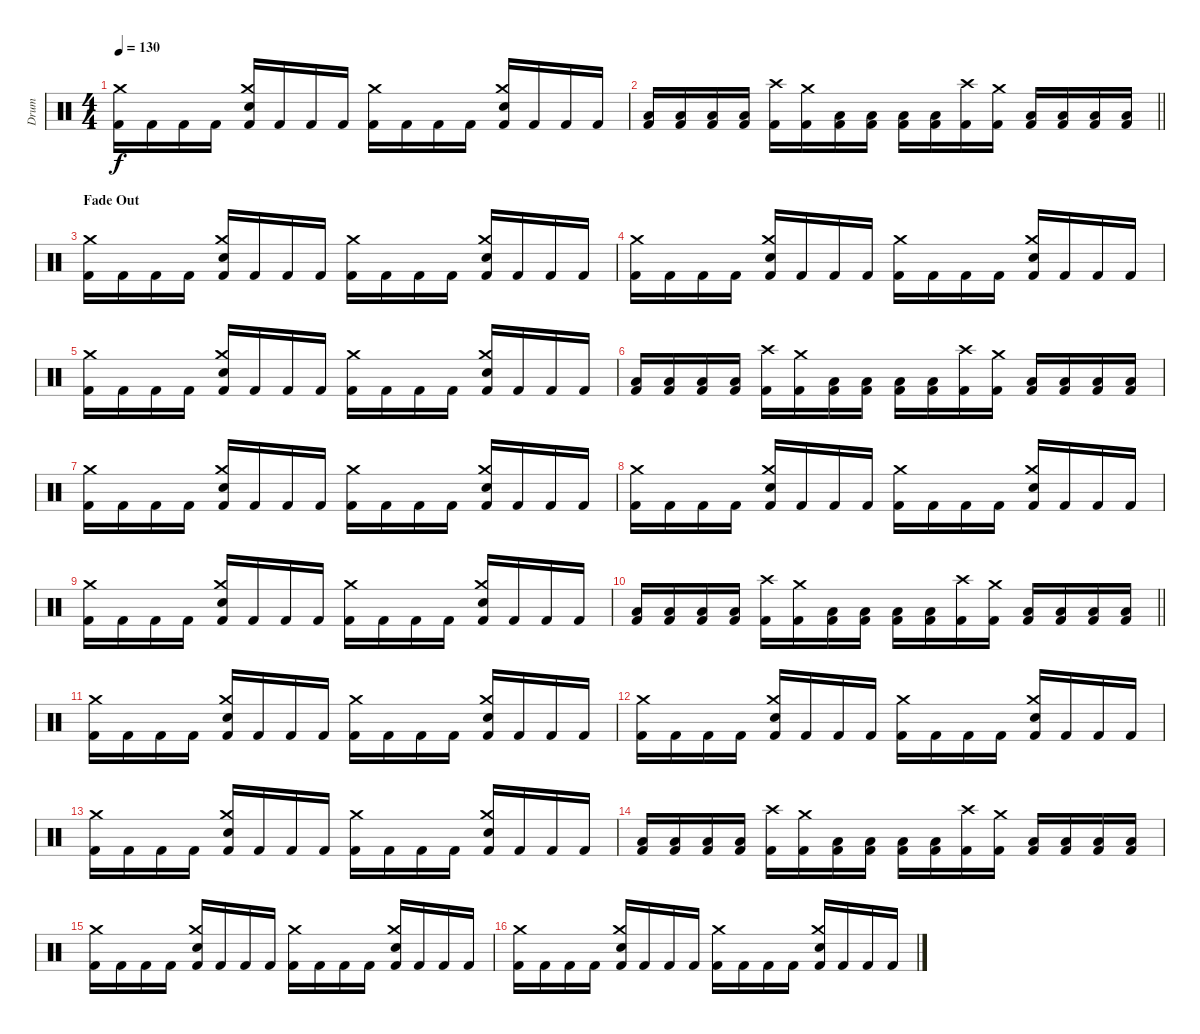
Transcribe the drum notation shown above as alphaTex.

\track ("Drum" "Drum") {instrument percussion}
\staff {score}
\articulation defaults
\ts (4 4)
\tempo 130
\clef neutral
\ks c
("Kick (hit) 2" "Crash medium (hit)").16{dy f} "Kick (hit) 2".16 "Kick (hit) 2".16 "Kick (hit) 2".16 ("Kick (hit) 2" "Electric Snare (hit)" "Crash medium (hit)").16 "Kick (hit) 2".16 "Kick (hit) 2".16 "Kick (hit) 2".16 ("Kick (hit) 2" "Crash medium (hit)").16 "Kick (hit) 2".16 "Kick (hit) 2".16 "Kick (hit) 2".16 ("Kick (hit) 2" "Electric Snare (hit)" "Crash medium (hit)").16 "Kick (hit) 2".16 "Kick (hit) 2".16 "Kick (hit) 2".16 |
\barLineRight lightlight
("Kick (hit) 2" "Low Floor Tom (hit)").16 ("Kick (hit) 2" "Low Floor Tom (hit)").16 ("Kick (hit) 2" "Low Floor Tom (hit)").16 ("Kick (hit) 2" "Low Floor Tom (hit)").16 ("Kick (hit) 2" "Crash high (hit)").16 ("Kick (hit) 2" "Crash medium (hit)").16 ("Kick (hit) 2" "Low Floor Tom (hit)").16 ("Kick (hit) 2" "Low Floor Tom (hit)").16 ("Kick (hit) 2" "Low Floor Tom (hit)").16 ("Kick (hit) 2" "Low Floor Tom (hit)").16 ("Kick (hit) 2" "Crash high (hit)").16 ("Kick (hit) 2" "Crash medium (hit)").16 ("Kick (hit) 2" "Low Floor Tom (hit)").16 ("Kick (hit) 2" "Low Floor Tom (hit)").16 ("Kick (hit) 2" "Low Floor Tom (hit)").16 ("Kick (hit) 2" "Low Floor Tom (hit)").16 |
\section ("" "Fade Out")
("Kick (hit) 2" "Crash medium (hit)").16 "Kick (hit) 2".16 "Kick (hit) 2".16 "Kick (hit) 2".16 ("Kick (hit) 2" "Electric Snare (hit)" "Crash medium (hit)").16 "Kick (hit) 2".16 "Kick (hit) 2".16 "Kick (hit) 2".16 ("Kick (hit) 2" "Crash medium (hit)").16 "Kick (hit) 2".16 "Kick (hit) 2".16 "Kick (hit) 2".16 ("Kick (hit) 2" "Electric Snare (hit)" "Crash medium (hit)").16 "Kick (hit) 2".16 "Kick (hit) 2".16 "Kick (hit) 2".16 |
("Kick (hit) 2" "Crash medium (hit)").16 "Kick (hit) 2".16 "Kick (hit) 2".16 "Kick (hit) 2".16 ("Kick (hit) 2" "Electric Snare (hit)" "Crash medium (hit)").16 "Kick (hit) 2".16 "Kick (hit) 2".16 "Kick (hit) 2".16 ("Kick (hit) 2" "Crash medium (hit)").16 "Kick (hit) 2".16 "Kick (hit) 2".16 "Kick (hit) 2".16 ("Kick (hit) 2" "Electric Snare (hit)" "Crash medium (hit)").16 "Kick (hit) 2".16 "Kick (hit) 2".16 "Kick (hit) 2".16 |
("Kick (hit) 2" "Crash medium (hit)").16 "Kick (hit) 2".16 "Kick (hit) 2".16 "Kick (hit) 2".16 ("Kick (hit) 2" "Electric Snare (hit)" "Crash medium (hit)").16 "Kick (hit) 2".16 "Kick (hit) 2".16 "Kick (hit) 2".16 ("Kick (hit) 2" "Crash medium (hit)").16 "Kick (hit) 2".16 "Kick (hit) 2".16 "Kick (hit) 2".16 ("Kick (hit) 2" "Electric Snare (hit)" "Crash medium (hit)").16 "Kick (hit) 2".16 "Kick (hit) 2".16 "Kick (hit) 2".16 |
("Kick (hit) 2" "Low Floor Tom (hit)").16 ("Kick (hit) 2" "Low Floor Tom (hit)").16 ("Kick (hit) 2" "Low Floor Tom (hit)").16 ("Kick (hit) 2" "Low Floor Tom (hit)").16 ("Kick (hit) 2" "Crash high (hit)").16 ("Kick (hit) 2" "Crash medium (hit)").16 ("Kick (hit) 2" "Low Floor Tom (hit)").16 ("Kick (hit) 2" "Low Floor Tom (hit)").16 ("Kick (hit) 2" "Low Floor Tom (hit)").16 ("Kick (hit) 2" "Low Floor Tom (hit)").16 ("Kick (hit) 2" "Crash high (hit)").16 ("Kick (hit) 2" "Crash medium (hit)").16 ("Kick (hit) 2" "Low Floor Tom (hit)").16 ("Kick (hit) 2" "Low Floor Tom (hit)").16 ("Kick (hit) 2" "Low Floor Tom (hit)").16 ("Kick (hit) 2" "Low Floor Tom (hit)").16 |
("Kick (hit) 2" "Crash medium (hit)").16 "Kick (hit) 2".16 "Kick (hit) 2".16 "Kick (hit) 2".16 ("Kick (hit) 2" "Electric Snare (hit)" "Crash medium (hit)").16 "Kick (hit) 2".16 "Kick (hit) 2".16 "Kick (hit) 2".16 ("Kick (hit) 2" "Crash medium (hit)").16 "Kick (hit) 2".16 "Kick (hit) 2".16 "Kick (hit) 2".16 ("Kick (hit) 2" "Electric Snare (hit)" "Crash medium (hit)").16 "Kick (hit) 2".16 "Kick (hit) 2".16 "Kick (hit) 2".16 |
("Kick (hit) 2" "Crash medium (hit)").16 "Kick (hit) 2".16 "Kick (hit) 2".16 "Kick (hit) 2".16 ("Kick (hit) 2" "Electric Snare (hit)" "Crash medium (hit)").16 "Kick (hit) 2".16 "Kick (hit) 2".16 "Kick (hit) 2".16 ("Kick (hit) 2" "Crash medium (hit)").16 "Kick (hit) 2".16 "Kick (hit) 2".16 "Kick (hit) 2".16 ("Kick (hit) 2" "Electric Snare (hit)" "Crash medium (hit)").16 "Kick (hit) 2".16 "Kick (hit) 2".16 "Kick (hit) 2".16 |
("Kick (hit) 2" "Crash medium (hit)").16 "Kick (hit) 2".16 "Kick (hit) 2".16 "Kick (hit) 2".16 ("Kick (hit) 2" "Electric Snare (hit)" "Crash medium (hit)").16 "Kick (hit) 2".16 "Kick (hit) 2".16 "Kick (hit) 2".16 ("Kick (hit) 2" "Crash medium (hit)").16 "Kick (hit) 2".16 "Kick (hit) 2".16 "Kick (hit) 2".16 ("Kick (hit) 2" "Electric Snare (hit)" "Crash medium (hit)").16 "Kick (hit) 2".16 "Kick (hit) 2".16 "Kick (hit) 2".16 |
\barLineRight lightlight
("Kick (hit) 2" "Low Floor Tom (hit)").16 ("Kick (hit) 2" "Low Floor Tom (hit)").16 ("Kick (hit) 2" "Low Floor Tom (hit)").16 ("Kick (hit) 2" "Low Floor Tom (hit)").16 ("Kick (hit) 2" "Crash high (hit)").16 ("Kick (hit) 2" "Crash medium (hit)").16 ("Kick (hit) 2" "Low Floor Tom (hit)").16 ("Kick (hit) 2" "Low Floor Tom (hit)").16 ("Kick (hit) 2" "Low Floor Tom (hit)").16 ("Kick (hit) 2" "Low Floor Tom (hit)").16 ("Kick (hit) 2" "Crash high (hit)").16 ("Kick (hit) 2" "Crash medium (hit)").16 ("Kick (hit) 2" "Low Floor Tom (hit)").16 ("Kick (hit) 2" "Low Floor Tom (hit)").16 ("Kick (hit) 2" "Low Floor Tom (hit)").16 ("Kick (hit) 2" "Low Floor Tom (hit)").16 |
("Kick (hit) 2" "Crash medium (hit)").16 "Kick (hit) 2".16 "Kick (hit) 2".16 "Kick (hit) 2".16 ("Kick (hit) 2" "Electric Snare (hit)" "Crash medium (hit)").16 "Kick (hit) 2".16 "Kick (hit) 2".16 "Kick (hit) 2".16 ("Kick (hit) 2" "Crash medium (hit)").16 "Kick (hit) 2".16 "Kick (hit) 2".16 "Kick (hit) 2".16 ("Kick (hit) 2" "Electric Snare (hit)" "Crash medium (hit)").16 "Kick (hit) 2".16 "Kick (hit) 2".16 "Kick (hit) 2".16 |
("Kick (hit) 2" "Crash medium (hit)").16 "Kick (hit) 2".16 "Kick (hit) 2".16 "Kick (hit) 2".16 ("Kick (hit) 2" "Electric Snare (hit)" "Crash medium (hit)").16 "Kick (hit) 2".16 "Kick (hit) 2".16 "Kick (hit) 2".16 ("Kick (hit) 2" "Crash medium (hit)").16 "Kick (hit) 2".16 "Kick (hit) 2".16 "Kick (hit) 2".16 ("Kick (hit) 2" "Electric Snare (hit)" "Crash medium (hit)").16 "Kick (hit) 2".16 "Kick (hit) 2".16 "Kick (hit) 2".16 |
("Kick (hit) 2" "Crash medium (hit)").16 "Kick (hit) 2".16 "Kick (hit) 2".16 "Kick (hit) 2".16 ("Kick (hit) 2" "Electric Snare (hit)" "Crash medium (hit)").16 "Kick (hit) 2".16 "Kick (hit) 2".16 "Kick (hit) 2".16 ("Kick (hit) 2" "Crash medium (hit)").16 "Kick (hit) 2".16 "Kick (hit) 2".16 "Kick (hit) 2".16 ("Kick (hit) 2" "Electric Snare (hit)" "Crash medium (hit)").16 "Kick (hit) 2".16 "Kick (hit) 2".16 "Kick (hit) 2".16 |
("Kick (hit) 2" "Low Floor Tom (hit)").16 ("Kick (hit) 2" "Low Floor Tom (hit)").16 ("Kick (hit) 2" "Low Floor Tom (hit)").16 ("Kick (hit) 2" "Low Floor Tom (hit)").16 ("Kick (hit) 2" "Crash high (hit)").16 ("Kick (hit) 2" "Crash medium (hit)").16 ("Kick (hit) 2" "Low Floor Tom (hit)").16 ("Kick (hit) 2" "Low Floor Tom (hit)").16 ("Kick (hit) 2" "Low Floor Tom (hit)").16 ("Kick (hit) 2" "Low Floor Tom (hit)").16 ("Kick (hit) 2" "Crash high (hit)").16 ("Kick (hit) 2" "Crash medium (hit)").16 ("Kick (hit) 2" "Low Floor Tom (hit)").16 ("Kick (hit) 2" "Low Floor Tom (hit)").16 ("Kick (hit) 2" "Low Floor Tom (hit)").16 ("Kick (hit) 2" "Low Floor Tom (hit)").16 |
("Kick (hit) 2" "Crash medium (hit)").16 "Kick (hit) 2".16 "Kick (hit) 2".16 "Kick (hit) 2".16 ("Kick (hit) 2" "Electric Snare (hit)" "Crash medium (hit)").16 "Kick (hit) 2".16 "Kick (hit) 2".16 "Kick (hit) 2".16 ("Kick (hit) 2" "Crash medium (hit)").16 "Kick (hit) 2".16 "Kick (hit) 2".16 "Kick (hit) 2".16 ("Kick (hit) 2" "Electric Snare (hit)" "Crash medium (hit)").16 "Kick (hit) 2".16 "Kick (hit) 2".16 "Kick (hit) 2".16 |
("Kick (hit) 2" "Crash medium (hit)").16 "Kick (hit) 2".16 "Kick (hit) 2".16 "Kick (hit) 2".16 ("Kick (hit) 2" "Electric Snare (hit)" "Crash medium (hit)").16 "Kick (hit) 2".16 "Kick (hit) 2".16 "Kick (hit) 2".16 ("Kick (hit) 2" "Crash medium (hit)").16 "Kick (hit) 2".16 "Kick (hit) 2".16 "Kick (hit) 2".16 ("Kick (hit) 2" "Electric Snare (hit)" "Crash medium (hit)").16 "Kick (hit) 2".16 "Kick (hit) 2".16 "Kick (hit) 2".16
